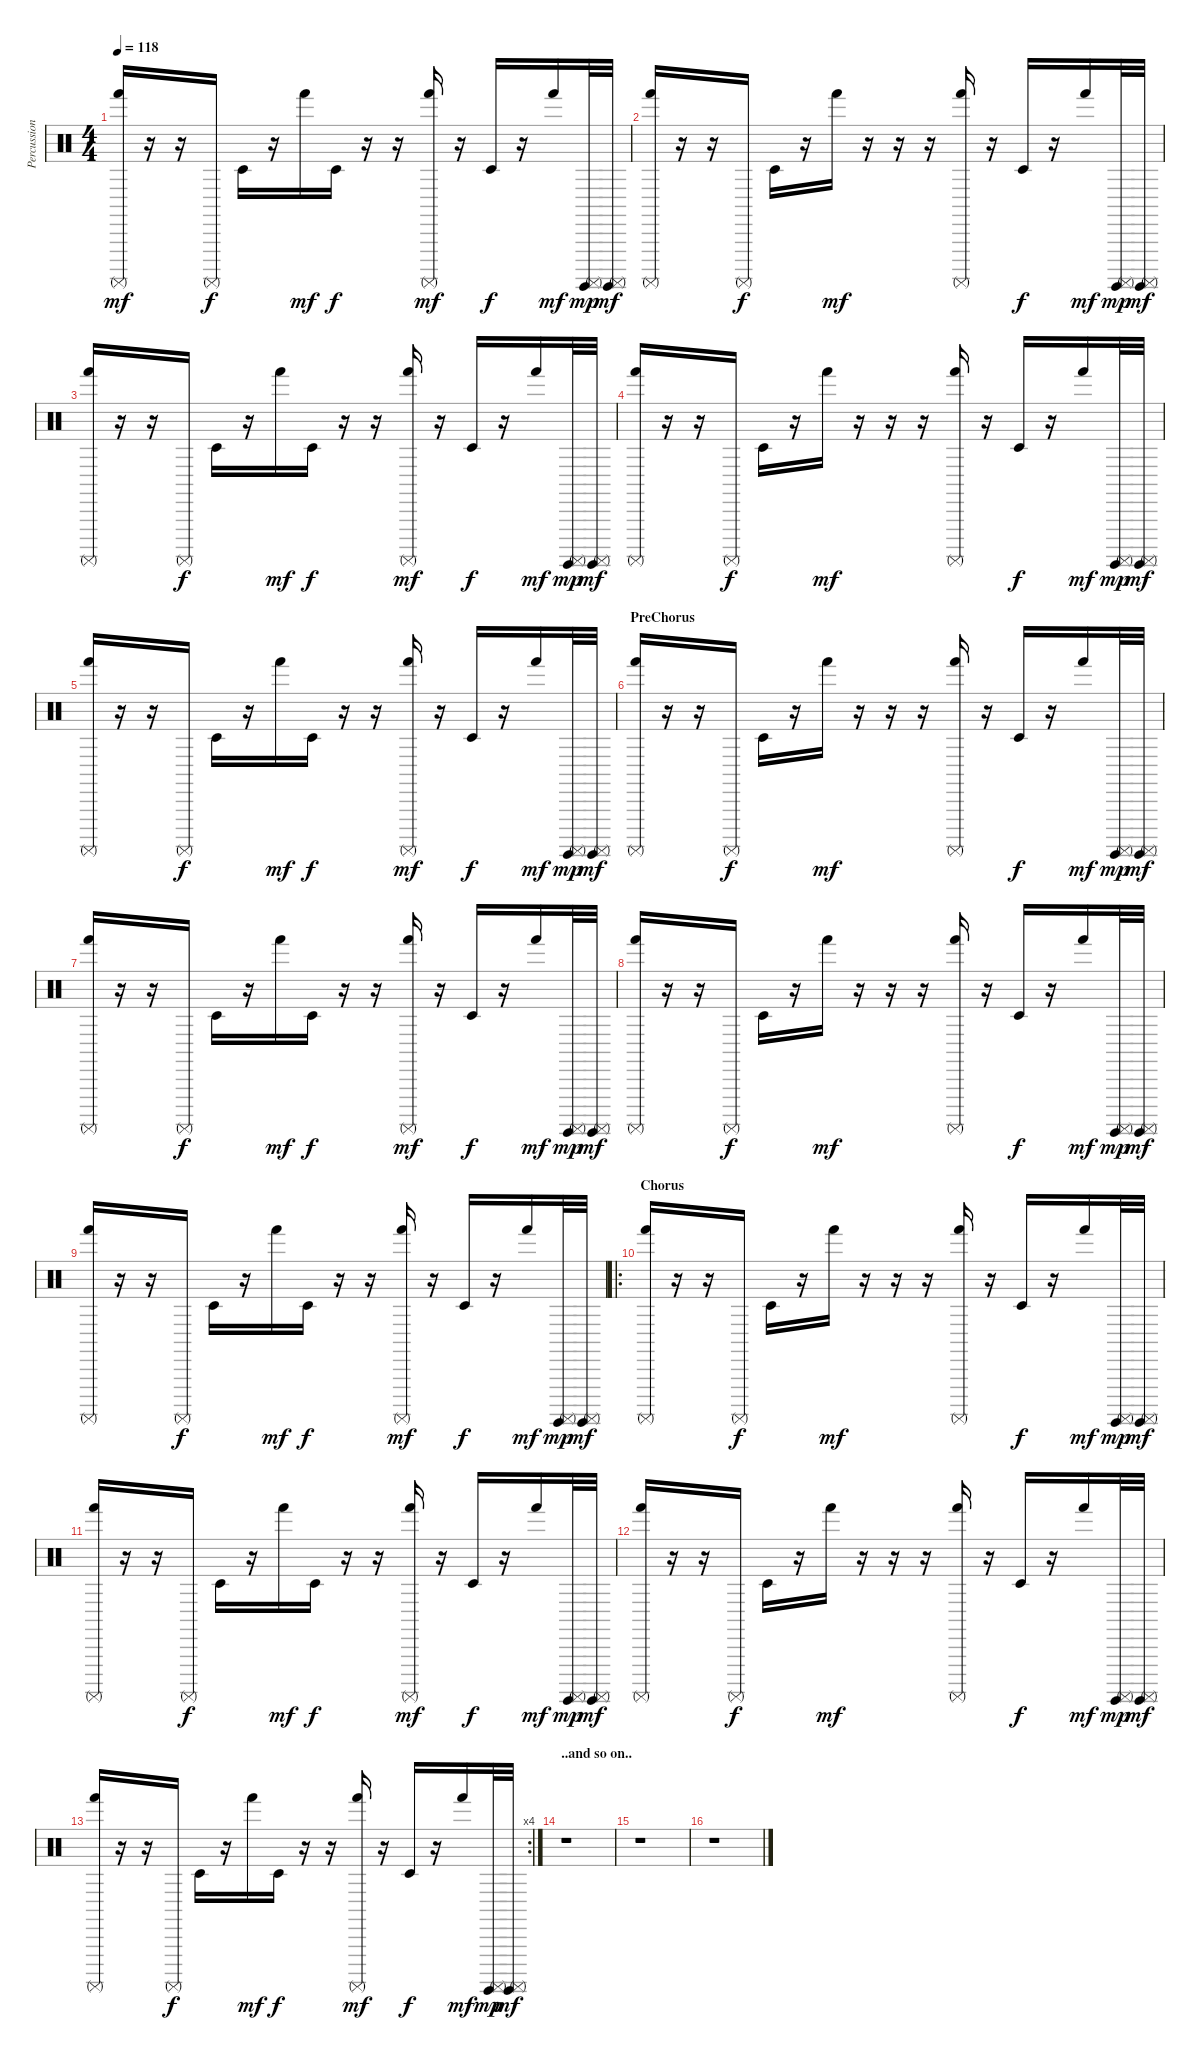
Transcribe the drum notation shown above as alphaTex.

\track ("Percussion" "Percussion") {instrument percussion}
\staff {score}
\articulation defaults
\ts (4 4)
\tempo 118
\clef neutral
\ks c
("Hand (hit)" "Surdo (mute)").16{dy mf} r.16 r.16 "Surdo (mute)".16{dy f} "Timbale low (hit)".16 r.16 "Hand (hit)".16{dy mf} "Timbale low (hit)".16{dy f} r.16 r.16 ("Hand (hit)" "Surdo (mute)").16{dy mf} r.16 "Timbale low (hit)".16{dy f} r.16 "Hand (hit)".16{dy mf} ("Surdo (hit)" "Surdo (mute)").32{dy mp} ("Surdo (hit)" "Surdo (mute)").32{dy mf} |
("Hand (hit)" "Surdo (mute)").16 r.16 r.16 "Surdo (mute)".16{dy f} "Timbale low (hit)".16 r.16 "Hand (hit)".16{dy mf} r.16 r.16 r.16 ("Hand (hit)" "Surdo (mute)").16 r.16 "Timbale low (hit)".16{dy f} r.16 "Hand (hit)".16{dy mf} ("Surdo (hit)" "Surdo (mute)").32{dy mp} ("Surdo (hit)" "Surdo (mute)").32{dy mf} |
("Hand (hit)" "Surdo (mute)").16 r.16 r.16 "Surdo (mute)".16{dy f} "Timbale low (hit)".16 r.16 "Hand (hit)".16{dy mf} "Timbale low (hit)".16{dy f} r.16 r.16 ("Hand (hit)" "Surdo (mute)").16{dy mf} r.16 "Timbale low (hit)".16{dy f} r.16 "Hand (hit)".16{dy mf} ("Surdo (hit)" "Surdo (mute)").32{dy mp} ("Surdo (hit)" "Surdo (mute)").32{dy mf} |
("Hand (hit)" "Surdo (mute)").16 r.16 r.16 "Surdo (mute)".16{dy f} "Timbale low (hit)".16 r.16 "Hand (hit)".16{dy mf} r.16 r.16 r.16 ("Hand (hit)" "Surdo (mute)").16 r.16 "Timbale low (hit)".16{dy f} r.16 "Hand (hit)".16{dy mf} ("Surdo (hit)" "Surdo (mute)").32{dy mp} ("Surdo (hit)" "Surdo (mute)").32{dy mf} |
("Hand (hit)" "Surdo (mute)").16 r.16 r.16 "Surdo (mute)".16{dy f} "Timbale low (hit)".16 r.16 "Hand (hit)".16{dy mf} "Timbale low (hit)".16{dy f} r.16 r.16 ("Hand (hit)" "Surdo (mute)").16{dy mf} r.16 "Timbale low (hit)".16{dy f} r.16 "Hand (hit)".16{dy mf} ("Surdo (hit)" "Surdo (mute)").32{dy mp} ("Surdo (hit)" "Surdo (mute)").32{dy mf} |
\section ("" "PreChorus")
("Hand (hit)" "Surdo (mute)").16 r.16 r.16 "Surdo (mute)".16{dy f} "Timbale low (hit)".16 r.16 "Hand (hit)".16{dy mf} r.16 r.16 r.16 ("Hand (hit)" "Surdo (mute)").16 r.16 "Timbale low (hit)".16{dy f} r.16 "Hand (hit)".16{dy mf} ("Surdo (hit)" "Surdo (mute)").32{dy mp} ("Surdo (hit)" "Surdo (mute)").32{dy mf} |
("Hand (hit)" "Surdo (mute)").16 r.16 r.16 "Surdo (mute)".16{dy f} "Timbale low (hit)".16 r.16 "Hand (hit)".16{dy mf} "Timbale low (hit)".16{dy f} r.16 r.16 ("Hand (hit)" "Surdo (mute)").16{dy mf} r.16 "Timbale low (hit)".16{dy f} r.16 "Hand (hit)".16{dy mf} ("Surdo (hit)" "Surdo (mute)").32{dy mp} ("Surdo (hit)" "Surdo (mute)").32{dy mf} |
("Hand (hit)" "Surdo (mute)").16 r.16 r.16 "Surdo (mute)".16{dy f} "Timbale low (hit)".16 r.16 "Hand (hit)".16{dy mf} r.16 r.16 r.16 ("Hand (hit)" "Surdo (mute)").16 r.16 "Timbale low (hit)".16{dy f} r.16 "Hand (hit)".16{dy mf} ("Surdo (hit)" "Surdo (mute)").32{dy mp} ("Surdo (hit)" "Surdo (mute)").32{dy mf} |
("Hand (hit)" "Surdo (mute)").16 r.16 r.16 "Surdo (mute)".16{dy f} "Timbale low (hit)".16 r.16 "Hand (hit)".16{dy mf} "Timbale low (hit)".16{dy f} r.16 r.16 ("Hand (hit)" "Surdo (mute)").16{dy mf} r.16 "Timbale low (hit)".16{dy f} r.16 "Hand (hit)".16{dy mf} ("Surdo (hit)" "Surdo (mute)").32{dy mp} ("Surdo (hit)" "Surdo (mute)").32{dy mf} |
\ro
\section ("" "Chorus")
("Hand (hit)" "Surdo (mute)").16 r.16 r.16 "Surdo (mute)".16{dy f} "Timbale low (hit)".16 r.16 "Hand (hit)".16{dy mf} r.16 r.16 r.16 ("Hand (hit)" "Surdo (mute)").16 r.16 "Timbale low (hit)".16{dy f} r.16 "Hand (hit)".16{dy mf} ("Surdo (hit)" "Surdo (mute)").32{dy mp} ("Surdo (hit)" "Surdo (mute)").32{dy mf} |
("Hand (hit)" "Surdo (mute)").16 r.16 r.16 "Surdo (mute)".16{dy f} "Timbale low (hit)".16 r.16 "Hand (hit)".16{dy mf} "Timbale low (hit)".16{dy f} r.16 r.16 ("Hand (hit)" "Surdo (mute)").16{dy mf} r.16 "Timbale low (hit)".16{dy f} r.16 "Hand (hit)".16{dy mf} ("Surdo (hit)" "Surdo (mute)").32{dy mp} ("Surdo (hit)" "Surdo (mute)").32{dy mf} |
("Hand (hit)" "Surdo (mute)").16 r.16 r.16 "Surdo (mute)".16{dy f} "Timbale low (hit)".16 r.16 "Hand (hit)".16{dy mf} r.16 r.16 r.16 ("Hand (hit)" "Surdo (mute)").16 r.16 "Timbale low (hit)".16{dy f} r.16 "Hand (hit)".16{dy mf} ("Surdo (hit)" "Surdo (mute)").32{dy mp} ("Surdo (hit)" "Surdo (mute)").32{dy mf} |
\rc 4
("Hand (hit)" "Surdo (mute)").16 r.16 r.16 "Surdo (mute)".16{dy f} "Timbale low (hit)".16 r.16 "Hand (hit)".16{dy mf} "Timbale low (hit)".16{dy f} r.16 r.16 ("Hand (hit)" "Surdo (mute)").16{dy mf} r.16 "Timbale low (hit)".16{dy f} r.16 "Hand (hit)".16{dy mf} ("Surdo (hit)" "Surdo (mute)").32{dy mp} ("Surdo (hit)" "Surdo (mute)").32{dy mf} |
\section ("" "..and so on..")
r.1 |
r.1 |
r.1
